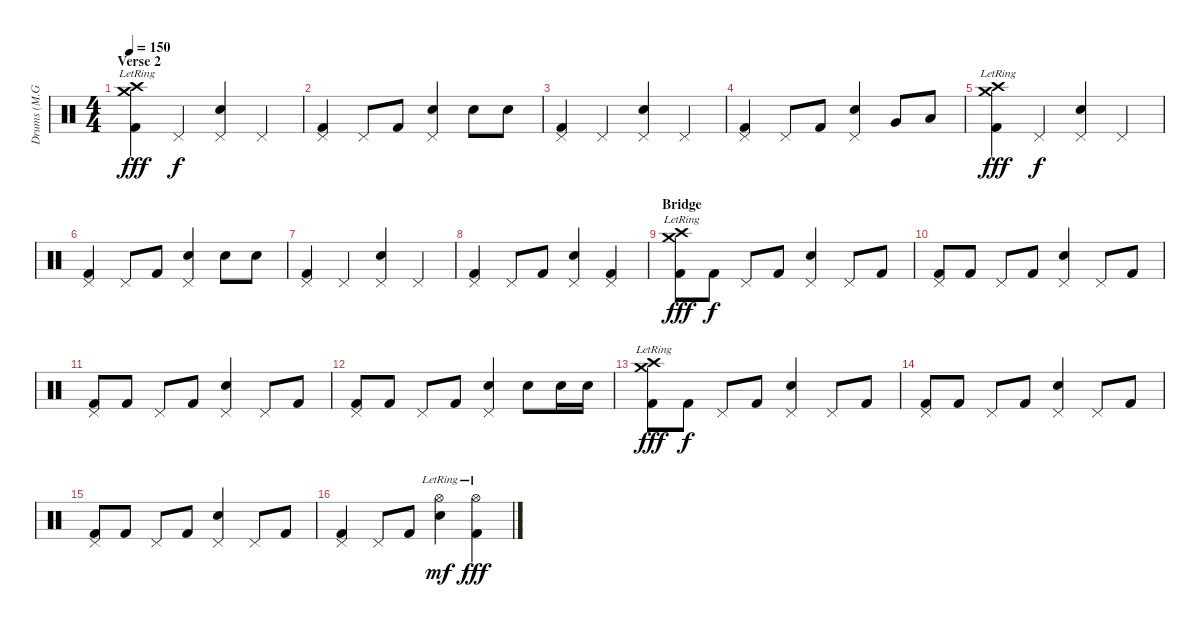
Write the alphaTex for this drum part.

\track ("Drums (M.Großkopf)" "Drums (M.G") {instrument percussion}
\staff {score}
\articulation defaults
\ts (4 4)
\section ("" "Verse 2")
\tempo 150
\clef neutral
\ks c
("Crash high (hit)"{lr} "Crash medium (hit)"{lr} "Kick (hit) 2").4{dy fff} "Pedal Hi-Hat (hit)".4{dy f} ("Pedal Hi-Hat (hit)" "Electric Snare (hit)").4 "Pedal Hi-Hat (hit)".4 |
("Pedal Hi-Hat (hit)" "Kick (hit) 2").4 "Pedal Hi-Hat (hit)".8 "Kick (hit) 2".8 ("Pedal Hi-Hat (hit)" "Electric Snare (hit)").4 "Electric Snare (hit)".8 "Electric Snare (hit)".8 |
("Pedal Hi-Hat (hit)" "Kick (hit) 2").4 "Pedal Hi-Hat (hit)".4 ("Pedal Hi-Hat (hit)" "Electric Snare (hit)").4 "Pedal Hi-Hat (hit)".4 |
("Pedal Hi-Hat (hit)" "Kick (hit) 2").4 "Pedal Hi-Hat (hit)".8 "Kick (hit) 2".8 ("Pedal Hi-Hat (hit)" "Electric Snare (hit)").4 "Very Low Tom (hit)".8 "Low Floor Tom (hit)".8 |
("Crash high (hit)"{lr} "Crash medium (hit)"{lr} "Kick (hit) 2").4{dy fff} "Pedal Hi-Hat (hit)".4{dy f} ("Pedal Hi-Hat (hit)" "Electric Snare (hit)").4 "Pedal Hi-Hat (hit)".4 |
("Pedal Hi-Hat (hit)" "Kick (hit) 2").4 "Pedal Hi-Hat (hit)".8 "Kick (hit) 2".8 ("Pedal Hi-Hat (hit)" "Electric Snare (hit)").4 "Electric Snare (hit)".8 "Electric Snare (hit)".8 |
("Pedal Hi-Hat (hit)" "Kick (hit) 2").4 "Pedal Hi-Hat (hit)".4 ("Pedal Hi-Hat (hit)" "Electric Snare (hit)").4 "Pedal Hi-Hat (hit)".4 |
("Pedal Hi-Hat (hit)" "Kick (hit) 2").4 "Pedal Hi-Hat (hit)".8 "Kick (hit) 2".8 ("Pedal Hi-Hat (hit)" "Electric Snare (hit)").4 ("Pedal Hi-Hat (hit)" "Kick (hit) 2").4 |
\section ("" "Bridge")
("Crash high (hit)"{lr} "Crash medium (hit)"{lr} "Kick (hit) 2").8{dy fff} "Kick (hit) 2".8{dy f} "Pedal Hi-Hat (hit)".8 "Kick (hit) 2".8 ("Pedal Hi-Hat (hit)" "Electric Snare (hit)").4 "Pedal Hi-Hat (hit)".8 "Kick (hit) 2".8 |
("Pedal Hi-Hat (hit)" "Kick (hit) 2").8 "Kick (hit) 2".8 "Pedal Hi-Hat (hit)".8 "Kick (hit) 2".8 ("Pedal Hi-Hat (hit)" "Electric Snare (hit)").4 "Pedal Hi-Hat (hit)".8 "Kick (hit) 2".8 |
("Pedal Hi-Hat (hit)" "Kick (hit) 2").8 "Kick (hit) 2".8 "Pedal Hi-Hat (hit)".8 "Kick (hit) 2".8 ("Pedal Hi-Hat (hit)" "Electric Snare (hit)").4 "Pedal Hi-Hat (hit)".8 "Kick (hit) 2".8 |
("Pedal Hi-Hat (hit)" "Kick (hit) 2").8 "Kick (hit) 2".8 "Pedal Hi-Hat (hit)".8 "Kick (hit) 2".8 ("Pedal Hi-Hat (hit)" "Electric Snare (hit)").4 "Electric Snare (hit)".8 "Electric Snare (hit)".16 "Electric Snare (hit)".16 |
("Crash high (hit)"{lr} "Crash medium (hit)"{lr} "Kick (hit) 2").8{dy fff} "Kick (hit) 2".8{dy f} "Pedal Hi-Hat (hit)".8 "Kick (hit) 2".8 ("Pedal Hi-Hat (hit)" "Electric Snare (hit)").4 "Pedal Hi-Hat (hit)".8 "Kick (hit) 2".8 |
("Pedal Hi-Hat (hit)" "Kick (hit) 2").8 "Kick (hit) 2".8 "Pedal Hi-Hat (hit)".8 "Kick (hit) 2".8 ("Pedal Hi-Hat (hit)" "Electric Snare (hit)").4 "Pedal Hi-Hat (hit)".8 "Kick (hit) 2".8 |
("Pedal Hi-Hat (hit)" "Kick (hit) 2").8 "Kick (hit) 2".8 "Pedal Hi-Hat (hit)".8 "Kick (hit) 2".8 ("Pedal Hi-Hat (hit)" "Electric Snare (hit)").4 "Pedal Hi-Hat (hit)".8 "Kick (hit) 2".8 |
("Pedal Hi-Hat (hit)" "Kick (hit) 2").4 "Pedal Hi-Hat (hit)".8 "Kick (hit) 2".8 ("Hi-Hat (open)"{lr} "Electric Snare (hit)").4{dy mf} ("Hi-Hat (open)"{lr} "Kick (hit) 2").4{dy fff}
